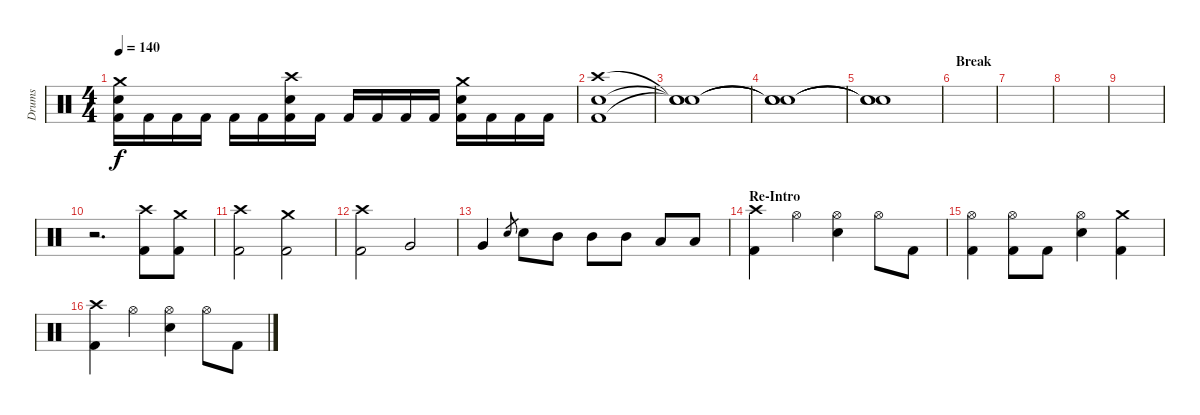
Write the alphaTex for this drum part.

\track ("Drums" "Drums") {instrument percussion}
\staff {score}
\articulation defaults
\ts (4 4)
\tempo 140
\clef neutral
\ks c
("Crash medium (hit)" "Electric Snare (hit)" "Kick (hit) 2").16{dy f} "Kick (hit) 2".16 "Kick (hit) 2".16 "Kick (hit) 2".16 "Kick (hit) 2".16 "Kick (hit) 2".16 ("Crash high (hit)" "Electric Snare (hit)" "Kick (hit) 2").16 "Kick (hit) 2".16 "Kick (hit) 2".16 "Kick (hit) 2".16 "Kick (hit) 2".16 "Kick (hit) 2".16 ("Crash medium (hit)" "Electric Snare (hit)" "Kick (hit) 2").16 "Kick (hit) 2".16 "Kick (hit) 2".16 "Kick (hit) 2".16 |
("Crash high (hit)" "Electric Snare (hit)" "Kick (hit) 2").1 |
("Snare (hit)"{t} "Snare (hit)"{t} "Snare (hit)"{t}).1 |
("Snare (hit)"{t} "Snare (hit)"{t} "Snare (hit)"{t}).1 |
("Snare (hit)"{t} "Snare (hit)"{t} "Snare (hit)"{t}).1 |
\section ("" "Break")
|
|
|
|
r.2{d} ("Crash high (hit)" "Kick (hit) 2").8 ("Crash medium (hit)" "Kick (hit) 2").8 |
("Crash high (hit)" "Kick (hit) 2").2 ("Crash medium (hit)" "Kick (hit) 2").2 |
("Crash high (hit)" "Kick (hit) 2").2 "Very Low Tom (hit)".2 |
"Very Low Tom (hit)".4 "Electric Snare (hit)".8{gr} "Electric Snare (hit)".8 "Mid Tom (hit)".8 "Mid Tom (hit)".8 "Mid Tom (hit)".8 "Low Tom (hit)".8 "Low Tom (hit)".8 |
\section ("" "Re-Intro")
("Crash high (hit)" "Kick (hit) 2").4 "Hi-Hat (open)".4 ("Hi-Hat (open)" "Electric Snare (hit)").4 "Hi-Hat (open)".8 "Kick (hit) 2".8 |
("Hi-Hat (open)" "Kick (hit) 2").4 ("Hi-Hat (open)" "Kick (hit) 2").8 "Kick (hit) 2".8 ("Hi-Hat (open)" "Electric Snare (hit)").4 ("Crash medium (hit)" "Kick (hit) 2").4 |
("Crash high (hit)" "Kick (hit) 2").4 "Hi-Hat (open)".4 ("Hi-Hat (open)" "Electric Snare (hit)").4 "Hi-Hat (open)".8 "Kick (hit) 2".8
